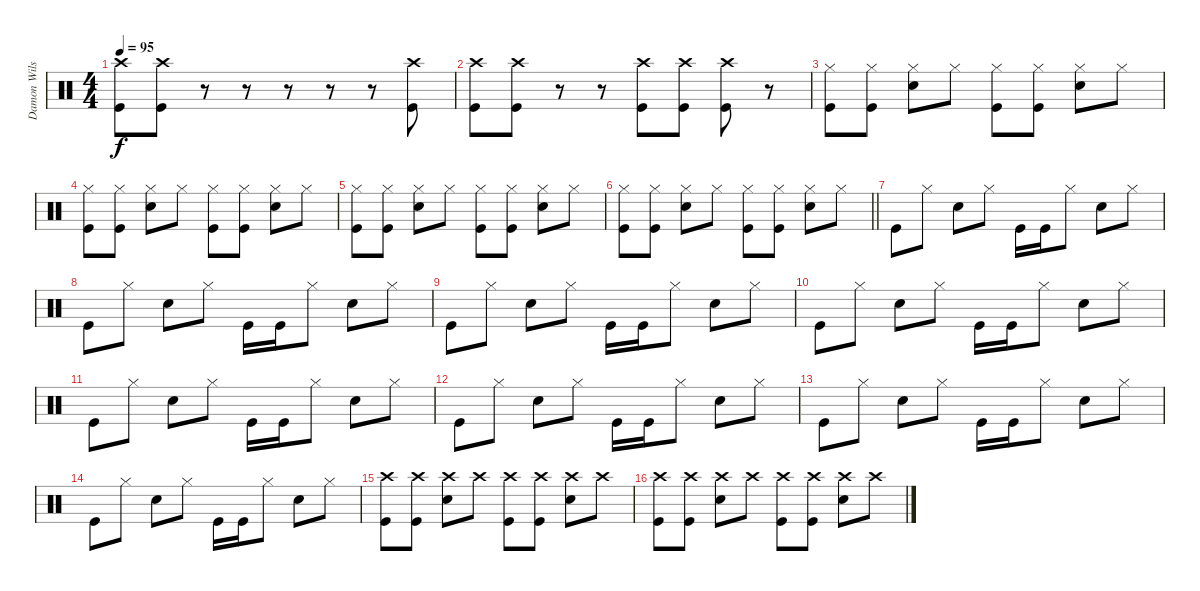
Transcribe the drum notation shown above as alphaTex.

\track ("Damon Wilson (Drums)" "Damon Wils") {instrument percussion}
\staff {score}
\articulation defaults
\ts (4 4)
\tempo 95
\clef neutral
\ks c
("Crash high (hit)" "Kick (hit)").8{dy f} ("Crash high (hit)" "Kick (hit)").8 r.8 r.8 r.8 r.8 r.8 ("Crash high (hit)" "Kick (hit)").8 |
("Crash high (hit)" "Kick (hit)").8 ("Crash high (hit)" "Kick (hit)").8 r.8 r.8 ("Crash high (hit)" "Kick (hit)").8 ("Crash high (hit)" "Kick (hit)").8 ("Crash high (hit)" "Kick (hit)").8 r.8 |
("Hi-Hat (closed)" "Kick (hit)").8 ("Hi-Hat (closed)" "Kick (hit)").8 ("Hi-Hat (closed)" "Snare (hit) 2").8 "Hi-Hat (closed)".8 ("Hi-Hat (closed)" "Kick (hit)").8 ("Hi-Hat (closed)" "Kick (hit)").8 ("Hi-Hat (closed)" "Snare (hit) 2").8 "Hi-Hat (closed)".8 |
("Hi-Hat (closed)" "Kick (hit)").8 ("Hi-Hat (closed)" "Kick (hit)").8 ("Hi-Hat (closed)" "Snare (hit) 2").8 "Hi-Hat (closed)".8 ("Hi-Hat (closed)" "Kick (hit)").8 ("Hi-Hat (closed)" "Kick (hit)").8 ("Hi-Hat (closed)" "Snare (hit) 2").8 "Hi-Hat (closed)".8 |
("Hi-Hat (closed)" "Kick (hit)").8 ("Hi-Hat (closed)" "Kick (hit)").8 ("Hi-Hat (closed)" "Snare (hit) 2").8 "Hi-Hat (closed)".8 ("Hi-Hat (closed)" "Kick (hit)").8 ("Hi-Hat (closed)" "Kick (hit)").8 ("Hi-Hat (closed)" "Snare (hit) 2").8 "Hi-Hat (closed)".8 |
\barLineRight lightlight
("Hi-Hat (closed)" "Kick (hit)").8 ("Hi-Hat (closed)" "Kick (hit)").8 ("Hi-Hat (closed)" "Snare (hit) 2").8 "Hi-Hat (closed)".8 ("Hi-Hat (closed)" "Kick (hit)").8 ("Hi-Hat (closed)" "Kick (hit)").8 ("Hi-Hat (closed)" "Snare (hit) 2").8 "Hi-Hat (closed)".8 |
"Kick (hit)".8 "Hi-Hat (closed)".8 "Snare (hit) 2".8 "Hi-Hat (closed)".8 "Kick (hit)".16 "Kick (hit)".16 "Hi-Hat (closed)".8 "Snare (hit) 2".8 "Hi-Hat (closed)".8 |
"Kick (hit)".8 "Hi-Hat (closed)".8 "Snare (hit) 2".8 "Hi-Hat (closed)".8 "Kick (hit)".16 "Kick (hit)".16 "Hi-Hat (closed)".8 "Snare (hit) 2".8 "Hi-Hat (closed)".8 |
"Kick (hit)".8 "Hi-Hat (closed)".8 "Snare (hit) 2".8 "Hi-Hat (closed)".8 "Kick (hit)".16 "Kick (hit)".16 "Hi-Hat (closed)".8 "Snare (hit) 2".8 "Hi-Hat (closed)".8 |
"Kick (hit)".8 "Hi-Hat (closed)".8 "Snare (hit) 2".8 "Hi-Hat (closed)".8 "Kick (hit)".16 "Kick (hit)".16 "Hi-Hat (closed)".8 "Snare (hit) 2".8 "Hi-Hat (closed)".8 |
"Kick (hit)".8 "Hi-Hat (closed)".8 "Snare (hit) 2".8 "Hi-Hat (closed)".8 "Kick (hit)".16 "Kick (hit)".16 "Hi-Hat (closed)".8 "Snare (hit) 2".8 "Hi-Hat (closed)".8 |
"Kick (hit)".8 "Hi-Hat (closed)".8 "Snare (hit) 2".8 "Hi-Hat (closed)".8 "Kick (hit)".16 "Kick (hit)".16 "Hi-Hat (closed)".8 "Snare (hit) 2".8 "Hi-Hat (closed)".8 |
"Kick (hit)".8 "Hi-Hat (closed)".8 "Snare (hit) 2".8 "Hi-Hat (closed)".8 "Kick (hit)".16 "Kick (hit)".16 "Hi-Hat (closed)".8 "Snare (hit) 2".8 "Hi-Hat (closed)".8 |
"Kick (hit)".8 "Hi-Hat (closed)".8 "Snare (hit) 2".8 "Hi-Hat (closed)".8 "Kick (hit)".16 "Kick (hit)".16 "Hi-Hat (closed)".8 "Snare (hit) 2".8 "Hi-Hat (closed)".8 |
("Crash high (hit)" "Kick (hit)").8 ("Crash high (hit)" "Kick (hit)").8 ("Crash high (hit)" "Snare (hit) 2").8 "Crash high (hit)".8 ("Crash high (hit)" "Kick (hit)").8 ("Crash high (hit)" "Kick (hit)").8 ("Crash high (hit)" "Snare (hit) 2").8 "Crash high (hit)".8 |
("Crash high (hit)" "Kick (hit)").8 ("Crash high (hit)" "Kick (hit)").8 ("Crash high (hit)" "Snare (hit) 2").8 "Crash high (hit)".8 ("Crash high (hit)" "Kick (hit)").8 ("Crash high (hit)" "Kick (hit)").8 ("Crash high (hit)" "Snare (hit) 2").8 "Crash high (hit)".8
